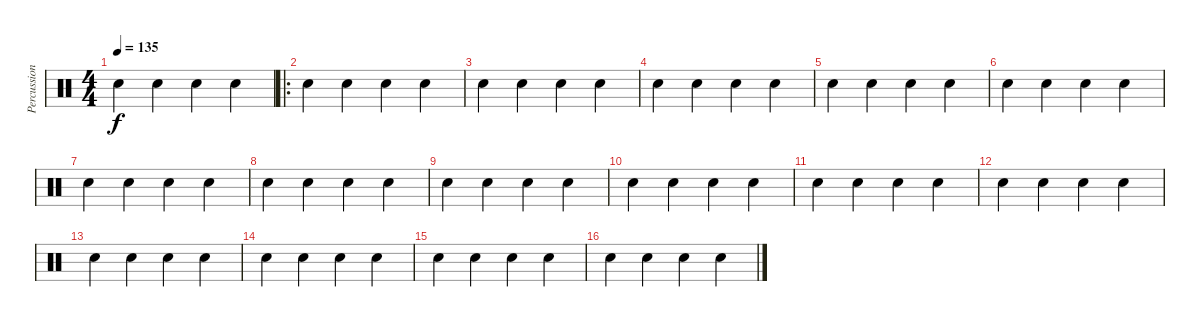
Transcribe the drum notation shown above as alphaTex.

\track ("Percussion" "Percussion") {instrument percussion}
\staff {score}
\articulation defaults
\ts (4 4)
\tempo 135
\clef neutral
\ks c "Hand Clap (hit)".4{dy f} "Hand Clap (hit)".4 "Hand Clap (hit)".4 "Hand Clap (hit)".4
|
\ro "Hand Clap (hit)".4 "Hand Clap (hit)".4 "Hand Clap (hit)".4 "Hand Clap (hit)".4
|
"Hand Clap (hit)".4 "Hand Clap (hit)".4 "Hand Clap (hit)".4 "Hand Clap (hit)".4 |
"Hand Clap (hit)".4 "Hand Clap (hit)".4 "Hand Clap (hit)".4 "Hand Clap (hit)".4 |
"Hand Clap (hit)".4 "Hand Clap (hit)".4 "Hand Clap (hit)".4 "Hand Clap (hit)".4 |
"Hand Clap (hit)".4 "Hand Clap (hit)".4 "Hand Clap (hit)".4 "Hand Clap (hit)".4 |
"Hand Clap (hit)".4 "Hand Clap (hit)".4 "Hand Clap (hit)".4 "Hand Clap (hit)".4 |
"Hand Clap (hit)".4 "Hand Clap (hit)".4 "Hand Clap (hit)".4 "Hand Clap (hit)".4 |
"Hand Clap (hit)".4 "Hand Clap (hit)".4 "Hand Clap (hit)".4 "Hand Clap (hit)".4 |
"Hand Clap (hit)".4 "Hand Clap (hit)".4 "Hand Clap (hit)".4 "Hand Clap (hit)".4 |
"Hand Clap (hit)".4 "Hand Clap (hit)".4 "Hand Clap (hit)".4 "Hand Clap (hit)".4 |
"Hand Clap (hit)".4 "Hand Clap (hit)".4 "Hand Clap (hit)".4 "Hand Clap (hit)".4 |
"Hand Clap (hit)".4 "Hand Clap (hit)".4 "Hand Clap (hit)".4 "Hand Clap (hit)".4 |
"Hand Clap (hit)".4 "Hand Clap (hit)".4 "Hand Clap (hit)".4 "Hand Clap (hit)".4 |
"Hand Clap (hit)".4 "Hand Clap (hit)".4 "Hand Clap (hit)".4 "Hand Clap (hit)".4 |
"Hand Clap (hit)".4 "Hand Clap (hit)".4 "Hand Clap (hit)".4 "Hand Clap (hit)".4
